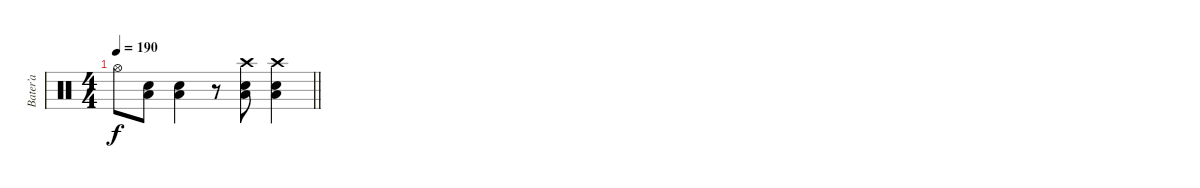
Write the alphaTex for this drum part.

\track ("Bater’a" "Bater’a") {instrument percussion}
\staff {score}
\articulation defaults
\ts (4 4)
\tempo 190
\clef neutral
\barLineRight lightlight
\ks c "Hi-Hat (open)".8{dy f}
("Low Floor Tom (hit)" "Electric Snare (hit)").8 ("Low Floor Tom (hit)" "Electric Snare (hit)").4 r.8 ("Crash high (hit)" "Low Floor Tom (hit)" "Electric Snare (hit)").8 ("Crash high (hit)" "Low Floor Tom (hit)" "Electric Snare (hit)").4
